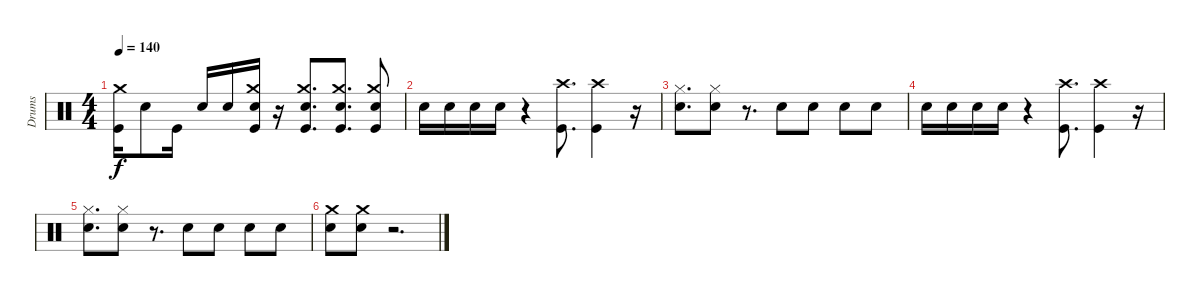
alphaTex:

\track ("Drums" "Drums") {instrument percussion}
\staff {score}
\articulation defaults
\ts (4 4)
\tempo 140
\clef neutral
\ks c
("Kick (hit)" "Crash medium (hit)").16{dy f} "Snare (hit) 2".8 "Kick (hit)".16 "Snare (hit) 2".16 "Snare (hit) 2".16 ("Kick (hit)" "Snare (hit) 2" "Crash medium (hit)").16 r.16 ("Kick (hit)" "Snare (hit) 2" "Crash medium (hit)").8{d} ("Kick (hit)" "Snare (hit) 2" "Crash medium (hit)").8{d} ("Kick (hit)" "Snare (hit) 2" "Crash medium (hit)").8 |
"Snare (hit) 2".16 "Snare (hit) 2".16 "Snare (hit) 2".16 "Snare (hit) 2".16 r.4 ("Kick (hit)" "Crash high (hit)").8{d} ("Kick (hit)" "Crash high (hit)").4 r.16 |
("Snare (hit) 2" "Hi-Hat (closed)").8{d} ("Snare (hit) 2" "Hi-Hat (closed)").8 r.8{d} "Snare (hit) 2".8 "Snare (hit) 2".8 "Snare (hit) 2".8 "Snare (hit) 2".8 |
"Snare (hit) 2".16 "Snare (hit) 2".16 "Snare (hit) 2".16 "Snare (hit) 2".16 r.4 ("Kick (hit)" "Crash high (hit)").8{d} ("Kick (hit)" "Crash high (hit)").4 r.16 |
("Snare (hit) 2" "Hi-Hat (closed)").8{d} ("Snare (hit) 2" "Hi-Hat (closed)").8 r.8{d} "Snare (hit) 2".8 "Snare (hit) 2".8 "Snare (hit) 2".8 "Snare (hit) 2".8 |
("Snare (hit) 2" "Crash medium (hit)").8 ("Snare (hit) 2" "Crash medium (hit)").8 r.2{d}
